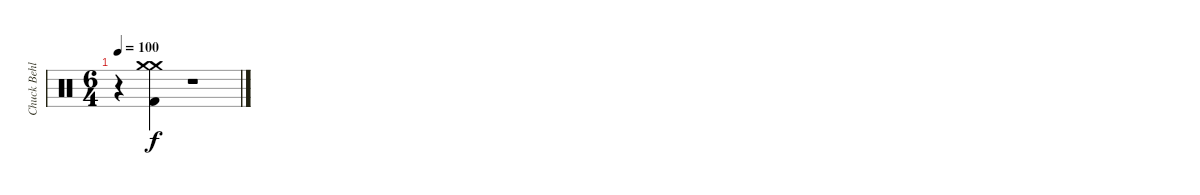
\track ("Chuck Behler" "Chuck Behl") {instrument percussion}
\staff {score}
\articulation defaults
\ts (6 4)
\tempo 100
\clef neutral
\ks c
r.4{dy f} ("Crash medium (hit)" "Crash medium (hit)" "Kick (hit) 2").4 r.1
